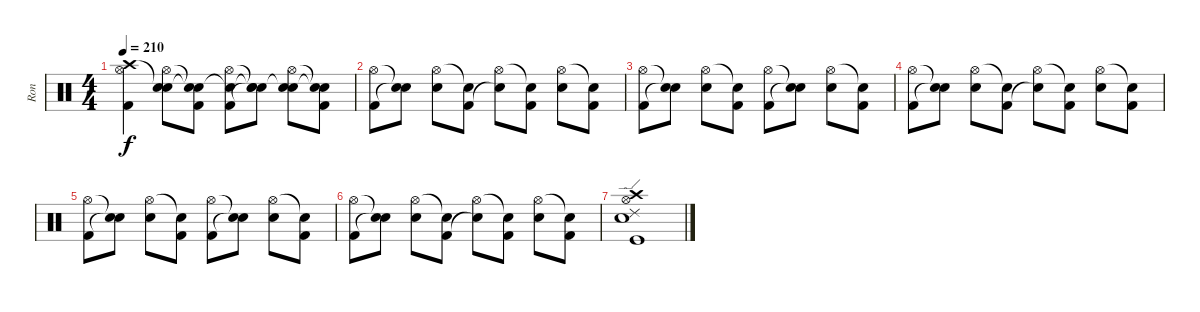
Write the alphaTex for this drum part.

\track ("Ron" "Ron") {instrument percussion}
\staff {score}
\articulation defaults
\ts (4 4)
\tempo 210
\clef neutral
\ks c
("Crash high (hit)" "Hi-Hat (open)" "Kick (hit) 2").4{dy f} ("Snare (hit)"{t} "Hi-Hat (open)" "Electric Snare (hit)").8 ("Snare (hit)"{t} "Snare (hit)"{t} "Kick (hit) 2").8 ("Snare (hit)"{t} "Hi-Hat (open)" "Kick (hit) 2").8 ("Snare (hit)"{t} "Snare (hit)"{t} "Snare (hit)"{t}).8 ("Snare (hit)"{t} "Hi-Hat (open)" "Electric Snare (hit)").8 ("Snare (hit)"{t} "Snare (hit)"{t} "Kick (hit) 2").8 |
("Hi-Hat (open)" "Kick (hit) 2").8 ("Snare (hit)"{t} "Snare (hit)"{t}).8 ("Hi-Hat (open)" "Electric Snare (hit)").8 ("Snare (hit)"{t} "Kick (hit) 2").8 ("Hi-Hat (open)" "Snare (hit)"{t}).8 ("Snare (hit)"{t} "Kick (hit) 2").8 ("Hi-Hat (open)" "Electric Snare (hit)").8 ("Snare (hit)"{t} "Kick (hit) 2").8 |
("Hi-Hat (open)" "Kick (hit) 2").8 ("Snare (hit)"{t} "Snare (hit)"{t}).8 ("Hi-Hat (open)" "Electric Snare (hit)").8 ("Snare (hit)"{t} "Kick (hit) 2").8 ("Hi-Hat (open)" "Kick (hit) 2").8 ("Snare (hit)"{t} "Snare (hit)"{t}).8 ("Hi-Hat (open)" "Electric Snare (hit)").8 ("Snare (hit)"{t} "Kick (hit) 2").8 |
("Hi-Hat (open)" "Kick (hit) 2").8 ("Snare (hit)"{t} "Snare (hit)"{t}).8 ("Hi-Hat (open)" "Electric Snare (hit)").8 ("Snare (hit)"{t} "Kick (hit) 2").8 ("Hi-Hat (open)" "Snare (hit)"{t}).8 ("Snare (hit)"{t} "Kick (hit) 2").8 ("Hi-Hat (open)" "Electric Snare (hit)").8 ("Snare (hit)"{t} "Kick (hit) 2").8 |
("Hi-Hat (open)" "Kick (hit) 2").8 ("Snare (hit)"{t} "Snare (hit)"{t}).8 ("Hi-Hat (open)" "Electric Snare (hit)").8 ("Snare (hit)"{t} "Kick (hit) 2").8 ("Hi-Hat (open)" "Kick (hit) 2").8 ("Snare (hit)"{t} "Snare (hit)"{t}).8 ("Hi-Hat (open)" "Electric Snare (hit)").8 ("Snare (hit)"{t} "Kick (hit) 2").8 |
("Hi-Hat (open)" "Kick (hit) 2").8 ("Snare (hit)"{t} "Snare (hit)"{t}).8 ("Hi-Hat (open)" "Electric Snare (hit)").8 ("Snare (hit)"{t} "Kick (hit) 2").8 ("Hi-Hat (open)" "Snare (hit)"{t}).8 ("Snare (hit)"{t} "Kick (hit) 2").8 ("Hi-Hat (open)" "Electric Snare (hit)").8 ("Snare (hit)"{t} "Kick (hit) 2").8 |
("Crash high (hit)" "Hi-Hat (open)" "Ride (edge) 2" "Electric Snare (hit)" "Kick (hit)").1
